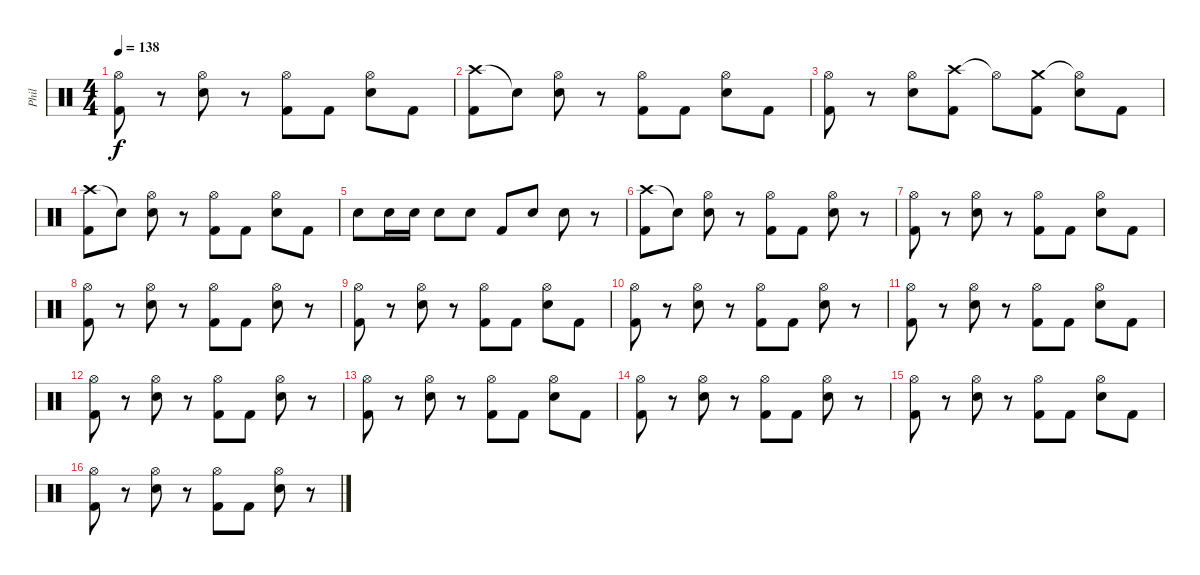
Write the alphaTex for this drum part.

\track ("Phil" "Phil") {instrument percussion}
\staff {score}
\articulation defaults
\ts (4 4)
\tempo 138
\clef neutral
\ks c
("Hi-Hat (open)" "Kick (hit) 2").8{dy f} r.8 ("Hi-Hat (open)" "Snare (hit) 2").8 r.8 ("Hi-Hat (open)" "Kick (hit) 2").8 "Kick (hit) 2".8 ("Hi-Hat (open)" "Snare (hit) 2").8 "Kick (hit) 2".8 |
("Crash high (hit)" "Kick (hit) 2").8 "Snare (hit)"{t}.8 ("Hi-Hat (open)" "Snare (hit) 2").8 r.8 ("Hi-Hat (open)" "Kick (hit) 2").8 "Kick (hit) 2".8 ("Hi-Hat (open)" "Snare (hit) 2").8 "Kick (hit) 2".8 |
("Hi-Hat (open)" "Kick (hit) 2").8 r.8 ("Hi-Hat (open)" "Snare (hit) 2").8 ("Crash high (hit)" "Kick (hit) 2").8 "Hi-Hat (open)"{t}.8 ("Crash medium (hit)" "Kick (hit) 2").8 ("Hi-Hat (open)"{t} "Snare (hit) 2").8 "Kick (hit) 2".8 |
("Crash high (hit)" "Kick (hit) 2").8 "Snare (hit)"{t}.8 ("Hi-Hat (open)" "Snare (hit) 2").8 r.8 ("Hi-Hat (open)" "Kick (hit) 2").8 "Kick (hit) 2".8 ("Hi-Hat (open)" "Snare (hit) 2").8 "Kick (hit) 2".8 |
"Snare (hit) 2".8 "Snare (hit) 2".16 "Snare (hit) 2".16 "Snare (hit) 2".8 "Snare (hit) 2".8 "Kick (hit) 2".8 "Snare (hit) 2".8 "Snare (hit) 2".8 r.8 |
("Crash high (hit)" "Kick (hit) 2").8 "Snare (hit)"{t}.8 ("Hi-Hat (open)" "Snare (hit) 2").8 r.8 ("Hi-Hat (open)" "Kick (hit) 2").8 "Kick (hit) 2".8 ("Hi-Hat (open)" "Snare (hit) 2").8 r.8 |
("Hi-Hat (open)" "Kick (hit) 2").8 r.8 ("Hi-Hat (open)" "Snare (hit) 2").8 r.8 ("Hi-Hat (open)" "Kick (hit) 2").8 "Kick (hit) 2".8 ("Hi-Hat (open)" "Snare (hit) 2").8 "Kick (hit) 2".8 |
("Hi-Hat (open)" "Kick (hit) 2").8 r.8 ("Hi-Hat (open)" "Snare (hit) 2").8 r.8 ("Hi-Hat (open)" "Kick (hit) 2").8 "Kick (hit) 2".8 ("Hi-Hat (open)" "Snare (hit) 2").8 r.8 |
("Hi-Hat (open)" "Kick (hit) 2").8 r.8 ("Hi-Hat (open)" "Snare (hit) 2").8 r.8 ("Hi-Hat (open)" "Kick (hit) 2").8 "Kick (hit) 2".8 ("Hi-Hat (open)" "Snare (hit) 2").8 "Kick (hit) 2".8 |
("Hi-Hat (open)" "Kick (hit) 2").8 r.8 ("Hi-Hat (open)" "Snare (hit) 2").8 r.8 ("Hi-Hat (open)" "Kick (hit) 2").8 "Kick (hit) 2".8 ("Hi-Hat (open)" "Snare (hit) 2").8 r.8 |
("Hi-Hat (open)" "Kick (hit) 2").8 r.8 ("Hi-Hat (open)" "Snare (hit) 2").8 r.8 ("Hi-Hat (open)" "Kick (hit) 2").8 "Kick (hit) 2".8 ("Hi-Hat (open)" "Snare (hit) 2").8 "Kick (hit) 2".8 |
("Hi-Hat (open)" "Kick (hit) 2").8 r.8 ("Hi-Hat (open)" "Snare (hit) 2").8 r.8 ("Hi-Hat (open)" "Kick (hit) 2").8 "Kick (hit) 2".8 ("Hi-Hat (open)" "Snare (hit) 2").8 r.8 |
("Hi-Hat (open)" "Kick (hit) 2").8 r.8 ("Hi-Hat (open)" "Snare (hit) 2").8 r.8 ("Hi-Hat (open)" "Kick (hit) 2").8 "Kick (hit) 2".8 ("Hi-Hat (open)" "Snare (hit) 2").8 "Kick (hit) 2".8 |
("Hi-Hat (open)" "Kick (hit) 2").8 r.8 ("Hi-Hat (open)" "Snare (hit) 2").8 r.8 ("Hi-Hat (open)" "Kick (hit) 2").8 "Kick (hit) 2".8 ("Hi-Hat (open)" "Snare (hit) 2").8 r.8 |
("Hi-Hat (open)" "Kick (hit) 2").8 r.8 ("Hi-Hat (open)" "Snare (hit) 2").8 r.8 ("Hi-Hat (open)" "Kick (hit) 2").8 "Kick (hit) 2".8 ("Hi-Hat (open)" "Snare (hit) 2").8 "Kick (hit) 2".8 |
("Hi-Hat (open)" "Kick (hit) 2").8 r.8 ("Hi-Hat (open)" "Snare (hit) 2").8 r.8 ("Hi-Hat (open)" "Kick (hit) 2").8 "Kick (hit) 2".8 ("Hi-Hat (open)" "Snare (hit) 2").8 r.8
